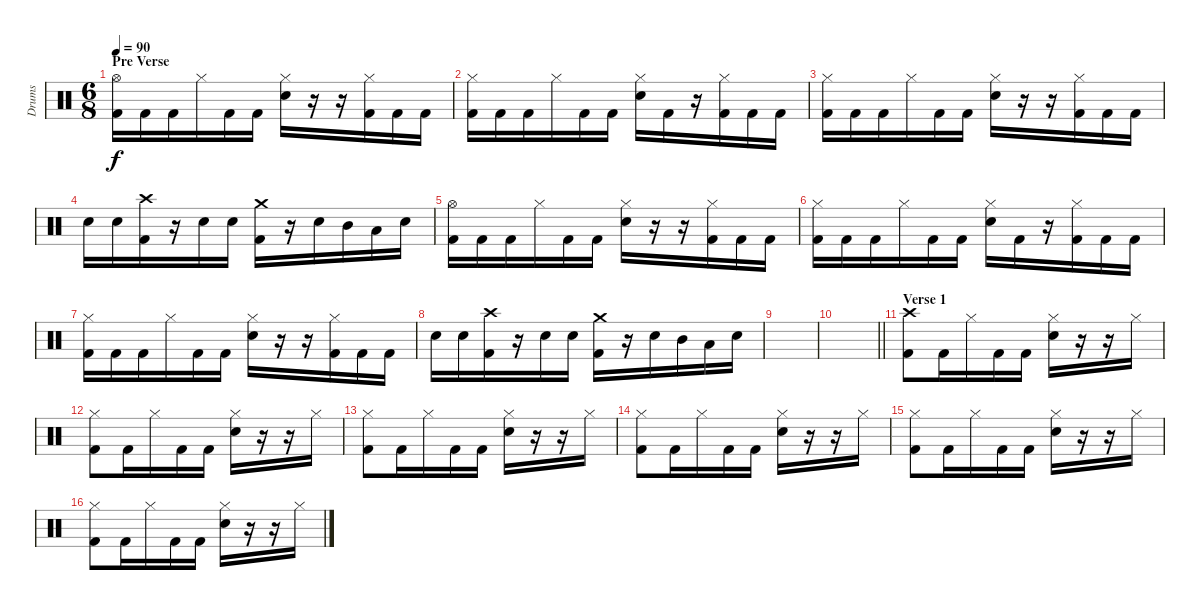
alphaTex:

\track ("Drums" "Drums") {instrument percussion}
\staff {score}
\articulation defaults
\ts (6 8)
\section ("" "Pre Verse")
\tempo 90
\clef neutral
\ks c
("Hi-Hat (open)" "Kick (hit) 2").16{dy f} "Kick (hit) 2".16 "Kick (hit) 2".16 "Hi-Hat (closed)".16 "Kick (hit) 2".16 "Kick (hit) 2".16 ("Hi-Hat (closed)" "Snare (hit) 2").16 r.16 r.16 ("Hi-Hat (closed)" "Kick (hit) 2").16 "Kick (hit) 2".16 "Kick (hit) 2".16 |
("Hi-Hat (closed)" "Kick (hit) 2").16 "Kick (hit) 2".16 "Kick (hit) 2".16 "Hi-Hat (closed)".16 "Kick (hit) 2".16 "Kick (hit) 2".16 ("Hi-Hat (closed)" "Snare (hit) 2").16 "Kick (hit) 2".16 r.16 ("Hi-Hat (closed)" "Kick (hit) 2").16 "Kick (hit) 2".16 "Kick (hit) 2".16 |
("Hi-Hat (closed)" "Kick (hit) 2").16 "Kick (hit) 2".16 "Kick (hit) 2".16 "Hi-Hat (closed)".16 "Kick (hit) 2".16 "Kick (hit) 2".16 ("Hi-Hat (closed)" "Snare (hit) 2").16 r.16 r.16 ("Hi-Hat (closed)" "Kick (hit) 2").16 "Kick (hit) 2".16 "Kick (hit) 2".16 |
"Snare (hit) 2".16 "Snare (hit) 2".16 ("Crash high (hit)" "Kick (hit) 2").16 r.16 "Snare (hit) 2".16 "Snare (hit) 2".16 ("Crash medium (hit)" "Kick (hit) 2").16 r.16 "Snare (hit) 2".16 "Mid Tom (hit)".16 "Low Tom (hit)".16 "Snare (hit) 2".16 |
("Hi-Hat (open)" "Kick (hit) 2").16 "Kick (hit) 2".16 "Kick (hit) 2".16 "Hi-Hat (closed)".16 "Kick (hit) 2".16 "Kick (hit) 2".16 ("Hi-Hat (closed)" "Snare (hit) 2").16 r.16 r.16 ("Hi-Hat (closed)" "Kick (hit) 2").16 "Kick (hit) 2".16 "Kick (hit) 2".16 |
("Hi-Hat (closed)" "Kick (hit) 2").16 "Kick (hit) 2".16 "Kick (hit) 2".16 "Hi-Hat (closed)".16 "Kick (hit) 2".16 "Kick (hit) 2".16 ("Hi-Hat (closed)" "Snare (hit) 2").16 "Kick (hit) 2".16 r.16 ("Hi-Hat (closed)" "Kick (hit) 2").16 "Kick (hit) 2".16 "Kick (hit) 2".16 |
("Hi-Hat (closed)" "Kick (hit) 2").16 "Kick (hit) 2".16 "Kick (hit) 2".16 "Hi-Hat (closed)".16 "Kick (hit) 2".16 "Kick (hit) 2".16 ("Hi-Hat (closed)" "Snare (hit) 2").16 r.16 r.16 ("Hi-Hat (closed)" "Kick (hit) 2").16 "Kick (hit) 2".16 "Kick (hit) 2".16 |
"Snare (hit) 2".16 "Snare (hit) 2".16 ("Crash high (hit)" "Kick (hit) 2").16 r.16 "Snare (hit) 2".16 "Snare (hit) 2".16 ("Crash medium (hit)" "Kick (hit) 2").16 r.16 "Snare (hit) 2".16 "Mid Tom (hit)".16 "Low Tom (hit)".16 "Snare (hit) 2".16 |
|
\barLineRight lightlight
|
\section ("" "Verse 1")
("Crash high (hit)" "Kick (hit) 2").8 "Kick (hit) 2".16 "Hi-Hat (closed)".16 "Kick (hit) 2".16 "Kick (hit) 2".16 ("Hi-Hat (closed)" "Snare (hit) 2").16 r.16 r.16 "Hi-Hat (closed)".16 |
("Hi-Hat (closed)" "Kick (hit) 2").8 "Kick (hit) 2".16 "Hi-Hat (closed)".16 "Kick (hit) 2".16 "Kick (hit) 2".16 ("Hi-Hat (closed)" "Snare (hit) 2").16 r.16 r.16 "Hi-Hat (closed)".16 |
("Hi-Hat (closed)" "Kick (hit) 2").8 "Kick (hit) 2".16 "Hi-Hat (closed)".16 "Kick (hit) 2".16 "Kick (hit) 2".16 ("Hi-Hat (closed)" "Snare (hit) 2").16 r.16 r.16 "Hi-Hat (closed)".16 |
("Hi-Hat (closed)" "Kick (hit) 2").8 "Kick (hit) 2".16 "Hi-Hat (closed)".16 "Kick (hit) 2".16 "Kick (hit) 2".16 ("Hi-Hat (closed)" "Snare (hit) 2").16 r.16 r.16 "Hi-Hat (closed)".16 |
("Hi-Hat (closed)" "Kick (hit) 2").8 "Kick (hit) 2".16 "Hi-Hat (closed)".16 "Kick (hit) 2".16 "Kick (hit) 2".16 ("Hi-Hat (closed)" "Snare (hit) 2").16 r.16 r.16 "Hi-Hat (closed)".16 |
("Hi-Hat (closed)" "Kick (hit) 2").8 "Kick (hit) 2".16 "Hi-Hat (closed)".16 "Kick (hit) 2".16 "Kick (hit) 2".16 ("Hi-Hat (closed)" "Snare (hit) 2").16 r.16 r.16 "Hi-Hat (closed)".16
